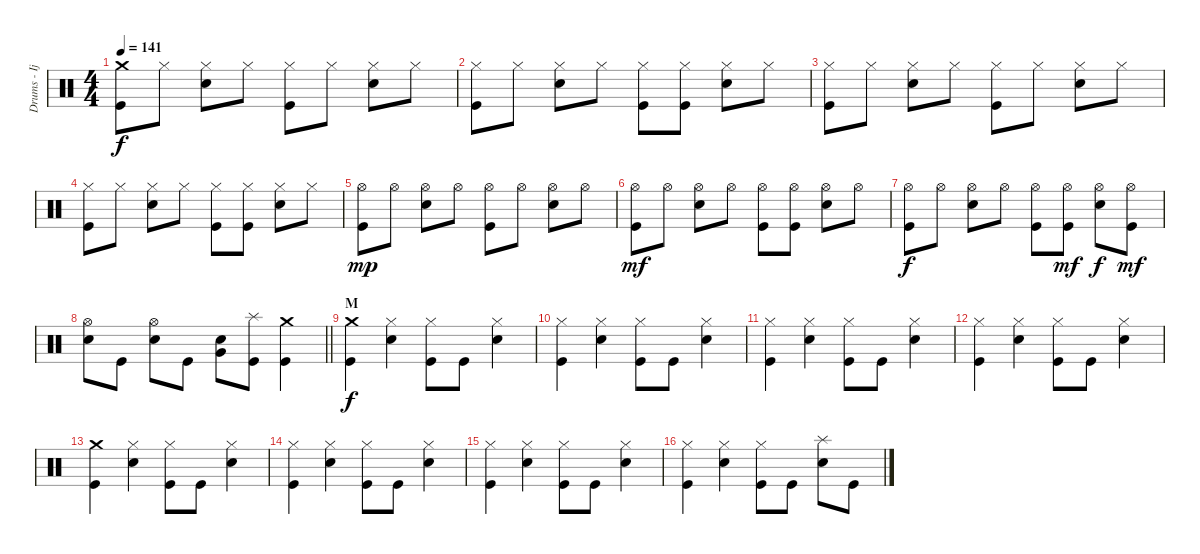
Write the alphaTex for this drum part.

\track ("Drums - Ijichi" "Drums - Ij") {instrument percussion}
\staff {score}
\articulation defaults
\ts (4 4)
\tempo 141
\clef neutral
\ks c
("Crash medium (hit)" "Kick (hit)").8{dy f} "Hi-Hat (closed)".8 ("Hi-Hat (closed)" "Electric Snare (hit)").8 "Hi-Hat (closed)".8 ("Hi-Hat (closed)" "Kick (hit)").8 "Hi-Hat (closed)".8 ("Hi-Hat (closed)" "Electric Snare (hit)").8 "Hi-Hat (closed)".8 |
("Hi-Hat (closed)" "Kick (hit)").8 "Hi-Hat (closed)".8 ("Hi-Hat (closed)" "Electric Snare (hit)").8 "Hi-Hat (closed)".8 ("Hi-Hat (closed)" "Kick (hit)").8 ("Hi-Hat (closed)" "Kick (hit)").8 ("Hi-Hat (closed)" "Electric Snare (hit)").8 "Hi-Hat (closed)".8 |
("Hi-Hat (closed)" "Kick (hit)").8 "Hi-Hat (closed)".8 ("Hi-Hat (closed)" "Electric Snare (hit)").8 "Hi-Hat (closed)".8 ("Hi-Hat (closed)" "Kick (hit)").8 "Hi-Hat (closed)".8 ("Hi-Hat (closed)" "Electric Snare (hit)").8 "Hi-Hat (closed)".8 |
("Hi-Hat (closed)" "Kick (hit)").8 "Hi-Hat (closed)".8 ("Hi-Hat (closed)" "Electric Snare (hit)").8 "Hi-Hat (closed)".8 ("Hi-Hat (closed)" "Kick (hit)").8 ("Hi-Hat (closed)" "Kick (hit)").8 ("Hi-Hat (closed)" "Electric Snare (hit)").8 "Hi-Hat (closed)".8 |
("Hi-Hat (open)" "Kick (hit)").8{dy mp} "Hi-Hat (open)".8 ("Hi-Hat (open)" "Electric Snare (hit)").8 "Hi-Hat (open)".8 ("Hi-Hat (open)" "Kick (hit)").8 "Hi-Hat (open)".8 ("Hi-Hat (open)" "Electric Snare (hit)").8 "Hi-Hat (open)".8 |
("Hi-Hat (open)" "Kick (hit)").8{dy mf} "Hi-Hat (open)".8 ("Hi-Hat (open)" "Electric Snare (hit)").8 "Hi-Hat (open)".8 ("Hi-Hat (open)" "Kick (hit)").8 ("Hi-Hat (open)" "Kick (hit)").8 ("Hi-Hat (open)" "Electric Snare (hit)").8 "Hi-Hat (open)".8 |
("Hi-Hat (open)" "Kick (hit)").8{dy f} "Hi-Hat (open)".8 ("Hi-Hat (open)" "Electric Snare (hit)").8 "Hi-Hat (open)".8 ("Hi-Hat (open)" "Kick (hit)").8 ("Hi-Hat (open)" "Kick (hit)").8{dy mf} ("Hi-Hat (open)" "Electric Snare (hit)").8{dy f} ("Hi-Hat (open)" "Kick (hit)").8{dy mf} |
\barLineRight lightlight
("Hi-Hat (open)" "Electric Snare (hit)").8 "Kick (hit)".8 ("Hi-Hat (open)" "Electric Snare (hit)").8 "Kick (hit)".8 ("Electric Snare (hit)" "Very Low Tom (hit)").8 ("Splash (hit)" "Kick (hit)").8 ("Crash medium (hit)" "Kick (hit)").4 |
\section ("" "M")
("Crash medium (hit)" "Kick (hit)").4{dy f} ("Hi-Hat (closed)" "Electric Snare (hit)").4 ("Hi-Hat (closed)" "Kick (hit)").8 "Kick (hit)".8 ("Hi-Hat (closed)" "Electric Snare (hit)").4 |
("Hi-Hat (closed)" "Kick (hit)").4 ("Hi-Hat (closed)" "Electric Snare (hit)").4 ("Hi-Hat (closed)" "Kick (hit)").8 "Kick (hit)".8 ("Hi-Hat (closed)" "Electric Snare (hit)").4 |
("Hi-Hat (closed)" "Kick (hit)").4 ("Hi-Hat (closed)" "Electric Snare (hit)").4 ("Hi-Hat (closed)" "Kick (hit)").8 "Kick (hit)".8 ("Hi-Hat (closed)" "Electric Snare (hit)").4 |
("Hi-Hat (closed)" "Kick (hit)").4 ("Hi-Hat (closed)" "Electric Snare (hit)").4 ("Hi-Hat (closed)" "Kick (hit)").8 "Kick (hit)".8 ("Hi-Hat (closed)" "Electric Snare (hit)").4 |
("Crash medium (hit)" "Kick (hit)").4 ("Hi-Hat (closed)" "Electric Snare (hit)").4 ("Hi-Hat (closed)" "Kick (hit)").8 "Kick (hit)".8 ("Hi-Hat (closed)" "Electric Snare (hit)").4 |
("Hi-Hat (closed)" "Kick (hit)").4 ("Hi-Hat (closed)" "Electric Snare (hit)").4 ("Hi-Hat (closed)" "Kick (hit)").8 "Kick (hit)".8 ("Hi-Hat (closed)" "Electric Snare (hit)").4 |
("Hi-Hat (closed)" "Kick (hit)").4 ("Hi-Hat (closed)" "Electric Snare (hit)").4 ("Hi-Hat (closed)" "Kick (hit)").8 "Kick (hit)".8 ("Hi-Hat (closed)" "Electric Snare (hit)").4 |
("Hi-Hat (closed)" "Kick (hit)").4 ("Hi-Hat (closed)" "Electric Snare (hit)").4 ("Hi-Hat (closed)" "Kick (hit)").8 "Kick (hit)".8 ("Splash (hit)" "Electric Snare (hit)").8 "Kick (hit)".8
